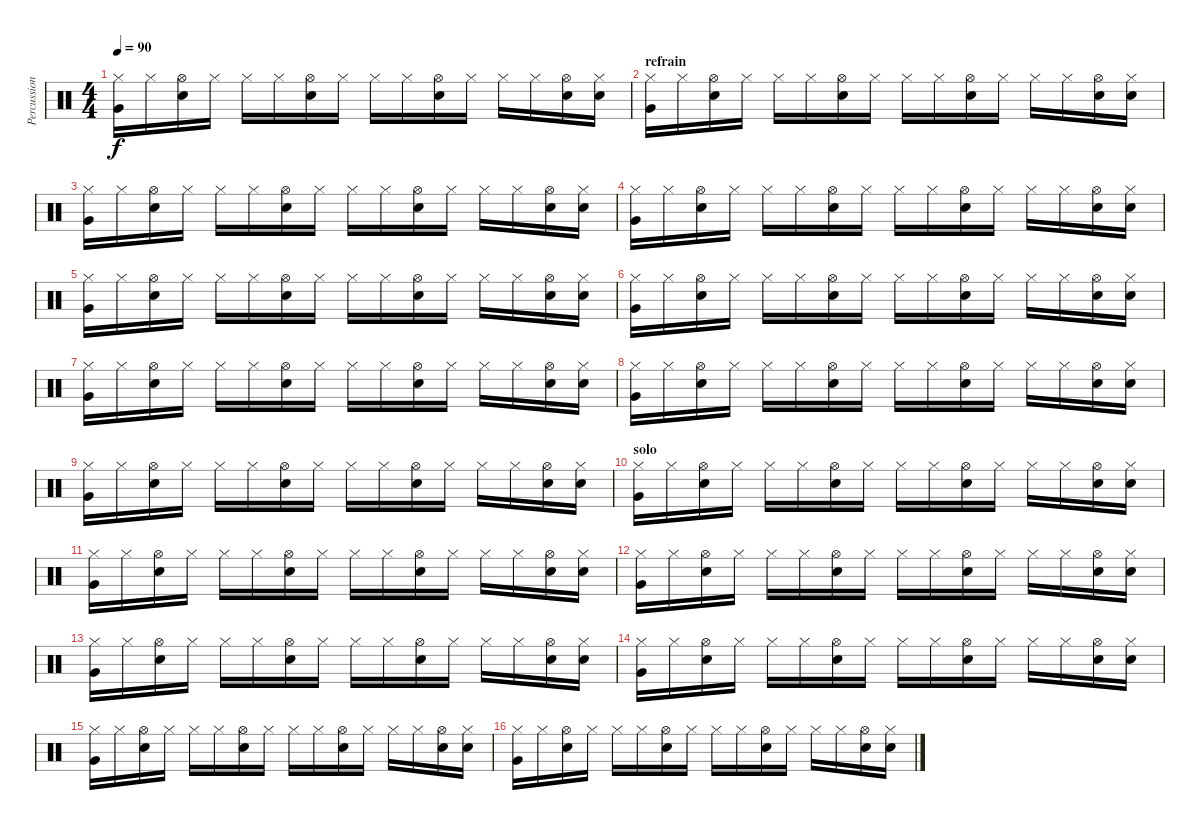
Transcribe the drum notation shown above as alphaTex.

\track ("Percussions" "Percussion") {instrument percussion}
\staff {score}
\articulation defaults
\ts (4 4)
\tempo 90
\clef neutral
\ks aminor
("Hi-Hat (closed)" "Very Low Tom (hit)").16{dy f} "Hi-Hat (closed)".16 ("Snare (hit) 2" "Hi-Hat (open)").16 "Hi-Hat (closed)".16 "Hi-Hat (closed)".16 "Hi-Hat (closed)".16 ("Snare (hit) 2" "Hi-Hat (open)").16 "Hi-Hat (closed)".16 "Hi-Hat (closed)".16 "Hi-Hat (closed)".16 ("Snare (hit) 2" "Hi-Hat (open)").16 "Hi-Hat (closed)".16 "Hi-Hat (closed)".16 "Hi-Hat (closed)".16 ("Snare (hit) 2" "Hi-Hat (open)").16 ("Snare (hit) 2" "Hi-Hat (closed)").16 |
\section ("" "refrain")
("Hi-Hat (closed)" "Very Low Tom (hit)").16 "Hi-Hat (closed)".16 ("Snare (hit) 2" "Hi-Hat (open)").16 "Hi-Hat (closed)".16 "Hi-Hat (closed)".16 "Hi-Hat (closed)".16 ("Snare (hit) 2" "Hi-Hat (open)").16 "Hi-Hat (closed)".16 "Hi-Hat (closed)".16 "Hi-Hat (closed)".16 ("Snare (hit) 2" "Hi-Hat (open)").16 "Hi-Hat (closed)".16 "Hi-Hat (closed)".16 "Hi-Hat (closed)".16 ("Snare (hit) 2" "Hi-Hat (open)").16 ("Snare (hit) 2" "Hi-Hat (closed)").16 |
("Hi-Hat (closed)" "Very Low Tom (hit)").16 "Hi-Hat (closed)".16 ("Snare (hit) 2" "Hi-Hat (open)").16 "Hi-Hat (closed)".16 "Hi-Hat (closed)".16 "Hi-Hat (closed)".16 ("Snare (hit) 2" "Hi-Hat (open)").16 "Hi-Hat (closed)".16 "Hi-Hat (closed)".16 "Hi-Hat (closed)".16 ("Snare (hit) 2" "Hi-Hat (open)").16 "Hi-Hat (closed)".16 "Hi-Hat (closed)".16 "Hi-Hat (closed)".16 ("Snare (hit) 2" "Hi-Hat (open)").16 ("Snare (hit) 2" "Hi-Hat (closed)").16 |
("Hi-Hat (closed)" "Very Low Tom (hit)").16 "Hi-Hat (closed)".16 ("Snare (hit) 2" "Hi-Hat (open)").16 "Hi-Hat (closed)".16 "Hi-Hat (closed)".16 "Hi-Hat (closed)".16 ("Snare (hit) 2" "Hi-Hat (open)").16 "Hi-Hat (closed)".16 "Hi-Hat (closed)".16 "Hi-Hat (closed)".16 ("Snare (hit) 2" "Hi-Hat (open)").16 "Hi-Hat (closed)".16 "Hi-Hat (closed)".16 "Hi-Hat (closed)".16 ("Snare (hit) 2" "Hi-Hat (open)").16 ("Snare (hit) 2" "Hi-Hat (closed)").16 |
("Hi-Hat (closed)" "Very Low Tom (hit)").16 "Hi-Hat (closed)".16 ("Snare (hit) 2" "Hi-Hat (open)").16 "Hi-Hat (closed)".16 "Hi-Hat (closed)".16 "Hi-Hat (closed)".16 ("Snare (hit) 2" "Hi-Hat (open)").16 "Hi-Hat (closed)".16 "Hi-Hat (closed)".16 "Hi-Hat (closed)".16 ("Snare (hit) 2" "Hi-Hat (open)").16 "Hi-Hat (closed)".16 "Hi-Hat (closed)".16 "Hi-Hat (closed)".16 ("Snare (hit) 2" "Hi-Hat (open)").16 ("Snare (hit) 2" "Hi-Hat (closed)").16 |
("Hi-Hat (closed)" "Very Low Tom (hit)").16 "Hi-Hat (closed)".16 ("Snare (hit) 2" "Hi-Hat (open)").16 "Hi-Hat (closed)".16 "Hi-Hat (closed)".16 "Hi-Hat (closed)".16 ("Snare (hit) 2" "Hi-Hat (open)").16 "Hi-Hat (closed)".16 "Hi-Hat (closed)".16 "Hi-Hat (closed)".16 ("Snare (hit) 2" "Hi-Hat (open)").16 "Hi-Hat (closed)".16 "Hi-Hat (closed)".16 "Hi-Hat (closed)".16 ("Snare (hit) 2" "Hi-Hat (open)").16 ("Snare (hit) 2" "Hi-Hat (closed)").16 |
("Hi-Hat (closed)" "Very Low Tom (hit)").16 "Hi-Hat (closed)".16 ("Snare (hit) 2" "Hi-Hat (open)").16 "Hi-Hat (closed)".16 "Hi-Hat (closed)".16 "Hi-Hat (closed)".16 ("Snare (hit) 2" "Hi-Hat (open)").16 "Hi-Hat (closed)".16 "Hi-Hat (closed)".16 "Hi-Hat (closed)".16 ("Snare (hit) 2" "Hi-Hat (open)").16 "Hi-Hat (closed)".16 "Hi-Hat (closed)".16 "Hi-Hat (closed)".16 ("Snare (hit) 2" "Hi-Hat (open)").16 ("Snare (hit) 2" "Hi-Hat (closed)").16 |
("Hi-Hat (closed)" "Very Low Tom (hit)").16 "Hi-Hat (closed)".16 ("Snare (hit) 2" "Hi-Hat (open)").16 "Hi-Hat (closed)".16 "Hi-Hat (closed)".16 "Hi-Hat (closed)".16 ("Snare (hit) 2" "Hi-Hat (open)").16 "Hi-Hat (closed)".16 "Hi-Hat (closed)".16 "Hi-Hat (closed)".16 ("Snare (hit) 2" "Hi-Hat (open)").16 "Hi-Hat (closed)".16 "Hi-Hat (closed)".16 "Hi-Hat (closed)".16 ("Snare (hit) 2" "Hi-Hat (open)").16 ("Snare (hit) 2" "Hi-Hat (closed)").16 |
("Hi-Hat (closed)" "Very Low Tom (hit)").16 "Hi-Hat (closed)".16 ("Snare (hit) 2" "Hi-Hat (open)").16 "Hi-Hat (closed)".16 "Hi-Hat (closed)".16 "Hi-Hat (closed)".16 ("Snare (hit) 2" "Hi-Hat (open)").16 "Hi-Hat (closed)".16 "Hi-Hat (closed)".16 "Hi-Hat (closed)".16 ("Snare (hit) 2" "Hi-Hat (open)").16 "Hi-Hat (closed)".16 "Hi-Hat (closed)".16 "Hi-Hat (closed)".16 ("Snare (hit) 2" "Hi-Hat (open)").16 ("Snare (hit) 2" "Hi-Hat (closed)").16 |
\section ("" "solo")
("Hi-Hat (closed)" "Very Low Tom (hit)").16 "Hi-Hat (closed)".16 ("Snare (hit) 2" "Hi-Hat (open)").16 "Hi-Hat (closed)".16 "Hi-Hat (closed)".16 "Hi-Hat (closed)".16 ("Snare (hit) 2" "Hi-Hat (open)").16 "Hi-Hat (closed)".16 "Hi-Hat (closed)".16 "Hi-Hat (closed)".16 ("Snare (hit) 2" "Hi-Hat (open)").16 "Hi-Hat (closed)".16 "Hi-Hat (closed)".16 "Hi-Hat (closed)".16 ("Snare (hit) 2" "Hi-Hat (open)").16 ("Snare (hit) 2" "Hi-Hat (closed)").16 |
("Hi-Hat (closed)" "Very Low Tom (hit)").16 "Hi-Hat (closed)".16 ("Snare (hit) 2" "Hi-Hat (open)").16 "Hi-Hat (closed)".16 "Hi-Hat (closed)".16 "Hi-Hat (closed)".16 ("Snare (hit) 2" "Hi-Hat (open)").16 "Hi-Hat (closed)".16 "Hi-Hat (closed)".16 "Hi-Hat (closed)".16 ("Snare (hit) 2" "Hi-Hat (open)").16 "Hi-Hat (closed)".16 "Hi-Hat (closed)".16 "Hi-Hat (closed)".16 ("Snare (hit) 2" "Hi-Hat (open)").16 ("Snare (hit) 2" "Hi-Hat (closed)").16 |
("Hi-Hat (closed)" "Very Low Tom (hit)").16 "Hi-Hat (closed)".16 ("Snare (hit) 2" "Hi-Hat (open)").16 "Hi-Hat (closed)".16 "Hi-Hat (closed)".16 "Hi-Hat (closed)".16 ("Snare (hit) 2" "Hi-Hat (open)").16 "Hi-Hat (closed)".16 "Hi-Hat (closed)".16 "Hi-Hat (closed)".16 ("Snare (hit) 2" "Hi-Hat (open)").16 "Hi-Hat (closed)".16 "Hi-Hat (closed)".16 "Hi-Hat (closed)".16 ("Snare (hit) 2" "Hi-Hat (open)").16 ("Snare (hit) 2" "Hi-Hat (closed)").16 |
("Hi-Hat (closed)" "Very Low Tom (hit)").16 "Hi-Hat (closed)".16 ("Snare (hit) 2" "Hi-Hat (open)").16 "Hi-Hat (closed)".16 "Hi-Hat (closed)".16 "Hi-Hat (closed)".16 ("Snare (hit) 2" "Hi-Hat (open)").16 "Hi-Hat (closed)".16 "Hi-Hat (closed)".16 "Hi-Hat (closed)".16 ("Snare (hit) 2" "Hi-Hat (open)").16 "Hi-Hat (closed)".16 "Hi-Hat (closed)".16 "Hi-Hat (closed)".16 ("Snare (hit) 2" "Hi-Hat (open)").16 ("Snare (hit) 2" "Hi-Hat (closed)").16 |
("Hi-Hat (closed)" "Very Low Tom (hit)").16 "Hi-Hat (closed)".16 ("Snare (hit) 2" "Hi-Hat (open)").16 "Hi-Hat (closed)".16 "Hi-Hat (closed)".16 "Hi-Hat (closed)".16 ("Snare (hit) 2" "Hi-Hat (open)").16 "Hi-Hat (closed)".16 "Hi-Hat (closed)".16 "Hi-Hat (closed)".16 ("Snare (hit) 2" "Hi-Hat (open)").16 "Hi-Hat (closed)".16 "Hi-Hat (closed)".16 "Hi-Hat (closed)".16 ("Snare (hit) 2" "Hi-Hat (open)").16 ("Snare (hit) 2" "Hi-Hat (closed)").16 |
("Hi-Hat (closed)" "Very Low Tom (hit)").16 "Hi-Hat (closed)".16 ("Snare (hit) 2" "Hi-Hat (open)").16 "Hi-Hat (closed)".16 "Hi-Hat (closed)".16 "Hi-Hat (closed)".16 ("Snare (hit) 2" "Hi-Hat (open)").16 "Hi-Hat (closed)".16 "Hi-Hat (closed)".16 "Hi-Hat (closed)".16 ("Snare (hit) 2" "Hi-Hat (open)").16 "Hi-Hat (closed)".16 "Hi-Hat (closed)".16 "Hi-Hat (closed)".16 ("Snare (hit) 2" "Hi-Hat (open)").16 ("Snare (hit) 2" "Hi-Hat (closed)").16 |
("Hi-Hat (closed)" "Very Low Tom (hit)").16 "Hi-Hat (closed)".16 ("Snare (hit) 2" "Hi-Hat (open)").16 "Hi-Hat (closed)".16 "Hi-Hat (closed)".16 "Hi-Hat (closed)".16 ("Snare (hit) 2" "Hi-Hat (open)").16 "Hi-Hat (closed)".16 "Hi-Hat (closed)".16 "Hi-Hat (closed)".16 ("Snare (hit) 2" "Hi-Hat (open)").16 "Hi-Hat (closed)".16 "Hi-Hat (closed)".16 "Hi-Hat (closed)".16 ("Snare (hit) 2" "Hi-Hat (open)").16 ("Snare (hit) 2" "Hi-Hat (closed)").16
